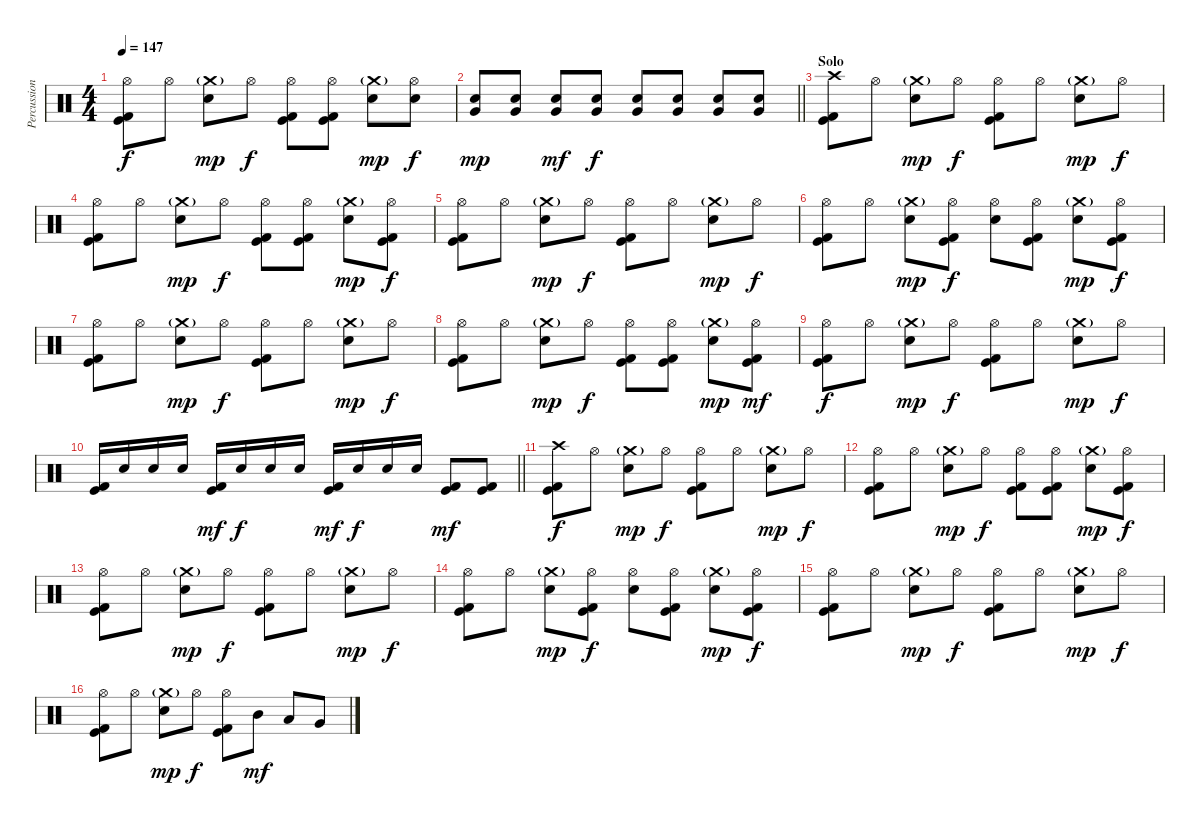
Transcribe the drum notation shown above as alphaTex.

\track ("Percussion" "Percussion") {instrument percussion}
\staff {score}
\articulation defaults
\ts (4 4)
\tempo 147
\clef neutral
\ks c
("Hi-Hat (open)" "Kick (hit)" "Kick (hit) 2").8{dy f} "Hi-Hat (open)".8 ("Crash medium (hit)"{g} "Electric Snare (hit)").8{dy mp} "Hi-Hat (open)".8{dy f} ("Hi-Hat (open)" "Kick (hit)" "Kick (hit) 2").8 ("Hi-Hat (open)" "Kick (hit)" "Kick (hit) 2").8 ("Crash medium (hit)"{g} "Electric Snare (hit)").8{dy mp} ("Hi-Hat (open)" "Electric Snare (hit)").8{dy f} |
\barLineRight lightlight
("Electric Snare (hit)" "Very Low Tom (hit)").8{dy mp} ("Electric Snare (hit)" "Very Low Tom (hit)").8 ("Electric Snare (hit)" "Very Low Tom (hit)").8{dy mf} ("Electric Snare (hit)" "Very Low Tom (hit)").8{dy f} ("Electric Snare (hit)" "Very Low Tom (hit)").8 ("Electric Snare (hit)" "Very Low Tom (hit)").8 ("Electric Snare (hit)" "Very Low Tom (hit)").8 ("Electric Snare (hit)" "Very Low Tom (hit)").8 |
\section ("" "Solo")
("Crash high (hit)" "Kick (hit)" "Kick (hit) 2").8 "Hi-Hat (open)".8 ("Crash medium (hit)"{g} "Electric Snare (hit)").8{dy mp} "Hi-Hat (open)".8{dy f} ("Hi-Hat (open)" "Kick (hit)" "Kick (hit) 2").8 "Hi-Hat (open)".8 ("Crash medium (hit)"{g} "Electric Snare (hit)").8{dy mp} "Hi-Hat (open)".8{dy f} |
("Hi-Hat (open)" "Kick (hit)" "Kick (hit) 2").8 "Hi-Hat (open)".8 ("Crash medium (hit)"{g} "Electric Snare (hit)").8{dy mp} "Hi-Hat (open)".8{dy f} ("Hi-Hat (open)" "Kick (hit)" "Kick (hit) 2").8 ("Hi-Hat (open)" "Kick (hit)" "Kick (hit) 2").8 ("Crash medium (hit)"{g} "Electric Snare (hit)").8{dy mp} ("Hi-Hat (open)" "Kick (hit)" "Kick (hit) 2").8{dy f} |
("Hi-Hat (open)" "Kick (hit)" "Kick (hit) 2").8 "Hi-Hat (open)".8 ("Crash medium (hit)"{g} "Electric Snare (hit)").8{dy mp} "Hi-Hat (open)".8{dy f} ("Hi-Hat (open)" "Kick (hit)" "Kick (hit) 2").8 "Hi-Hat (open)".8 ("Crash medium (hit)"{g} "Electric Snare (hit)").8{dy mp} "Hi-Hat (open)".8{dy f} |
("Hi-Hat (open)" "Kick (hit)" "Kick (hit) 2").8 "Hi-Hat (open)".8 ("Crash medium (hit)"{g} "Electric Snare (hit)").8{dy mp} ("Hi-Hat (open)" "Kick (hit)" "Kick (hit) 2").8{dy f} ("Hi-Hat (open)" "Electric Snare (hit)").8 ("Hi-Hat (open)" "Kick (hit)" "Kick (hit) 2").8 ("Crash medium (hit)"{g} "Electric Snare (hit)").8{dy mp} ("Hi-Hat (open)" "Kick (hit)" "Kick (hit) 2").8{dy f} |
("Hi-Hat (open)" "Kick (hit)" "Kick (hit) 2").8 "Hi-Hat (open)".8 ("Crash medium (hit)"{g} "Electric Snare (hit)").8{dy mp} "Hi-Hat (open)".8{dy f} ("Hi-Hat (open)" "Kick (hit)" "Kick (hit) 2").8 "Hi-Hat (open)".8 ("Crash medium (hit)"{g} "Electric Snare (hit)").8{dy mp} "Hi-Hat (open)".8{dy f} |
("Hi-Hat (open)" "Kick (hit)" "Kick (hit) 2").8 "Hi-Hat (open)".8 ("Crash medium (hit)"{g} "Electric Snare (hit)").8{dy mp} "Hi-Hat (open)".8{dy f} ("Hi-Hat (open)" "Kick (hit)" "Kick (hit) 2").8 ("Hi-Hat (open)" "Kick (hit)" "Kick (hit) 2").8 ("Crash medium (hit)"{g} "Electric Snare (hit)").8{dy mp} ("Hi-Hat (open)" "Kick (hit)" "Kick (hit) 2").8{dy mf} |
("Hi-Hat (open)" "Kick (hit)" "Kick (hit) 2").8{dy f} "Hi-Hat (open)".8 ("Crash medium (hit)"{g} "Electric Snare (hit)").8{dy mp} "Hi-Hat (open)".8{dy f} ("Hi-Hat (open)" "Kick (hit)" "Kick (hit) 2").8 "Hi-Hat (open)".8 ("Crash medium (hit)"{g} "Electric Snare (hit)").8{dy mp} "Hi-Hat (open)".8{dy f} |
\barLineRight lightlight
("Kick (hit)" "Kick (hit) 2").16 "Electric Snare (hit)".16 "Electric Snare (hit)".16 "Electric Snare (hit)".16 ("Kick (hit)" "Kick (hit) 2").16{dy mf} "Electric Snare (hit)".16{dy f} "Electric Snare (hit)".16 "Electric Snare (hit)".16 ("Kick (hit)" "Kick (hit) 2").16{dy mf} "Electric Snare (hit)".16{dy f} "Electric Snare (hit)".16 "Electric Snare (hit)".16 ("Kick (hit)" "Kick (hit) 2").8{dy mf} ("Kick (hit)" "Kick (hit) 2").8 |
("Crash high (hit)" "Kick (hit)" "Kick (hit) 2").8{dy f} "Hi-Hat (open)".8 ("Crash medium (hit)"{g} "Electric Snare (hit)").8{dy mp} "Hi-Hat (open)".8{dy f} ("Hi-Hat (open)" "Kick (hit)" "Kick (hit) 2").8 "Hi-Hat (open)".8 ("Crash medium (hit)"{g} "Electric Snare (hit)").8{dy mp} "Hi-Hat (open)".8{dy f} |
("Hi-Hat (open)" "Kick (hit)" "Kick (hit) 2").8 "Hi-Hat (open)".8 ("Crash medium (hit)"{g} "Electric Snare (hit)").8{dy mp} "Hi-Hat (open)".8{dy f} ("Hi-Hat (open)" "Kick (hit)" "Kick (hit) 2").8 ("Hi-Hat (open)" "Kick (hit)" "Kick (hit) 2").8 ("Crash medium (hit)"{g} "Electric Snare (hit)").8{dy mp} ("Hi-Hat (open)" "Kick (hit)" "Kick (hit) 2").8{dy f} |
("Hi-Hat (open)" "Kick (hit)" "Kick (hit) 2").8 "Hi-Hat (open)".8 ("Crash medium (hit)"{g} "Electric Snare (hit)").8{dy mp} "Hi-Hat (open)".8{dy f} ("Hi-Hat (open)" "Kick (hit)" "Kick (hit) 2").8 "Hi-Hat (open)".8 ("Crash medium (hit)"{g} "Electric Snare (hit)").8{dy mp} "Hi-Hat (open)".8{dy f} |
("Hi-Hat (open)" "Kick (hit)" "Kick (hit) 2").8 "Hi-Hat (open)".8 ("Crash medium (hit)"{g} "Electric Snare (hit)").8{dy mp} ("Hi-Hat (open)" "Kick (hit)" "Kick (hit) 2").8{dy f} ("Hi-Hat (open)" "Electric Snare (hit)").8 ("Hi-Hat (open)" "Kick (hit)" "Kick (hit) 2").8 ("Crash medium (hit)"{g} "Electric Snare (hit)").8{dy mp} ("Hi-Hat (open)" "Kick (hit)" "Kick (hit) 2").8{dy f} |
("Hi-Hat (open)" "Kick (hit)" "Kick (hit) 2").8 "Hi-Hat (open)".8 ("Crash medium (hit)"{g} "Electric Snare (hit)").8{dy mp} "Hi-Hat (open)".8{dy f} ("Hi-Hat (open)" "Kick (hit)" "Kick (hit) 2").8 "Hi-Hat (open)".8 ("Crash medium (hit)"{g} "Electric Snare (hit)").8{dy mp} "Hi-Hat (open)".8{dy f} |
("Hi-Hat (open)" "Kick (hit)" "Kick (hit) 2").8 "Hi-Hat (open)".8 ("Crash medium (hit)"{g} "Electric Snare (hit)").8{dy mp} "Hi-Hat (open)".8{dy f} ("Hi-Hat (open)" "Kick (hit)" "Kick (hit) 2").8 "Mid Tom (hit)".8{dy mf} "Low Tom (hit)".8 "Very Low Tom (hit)".8
